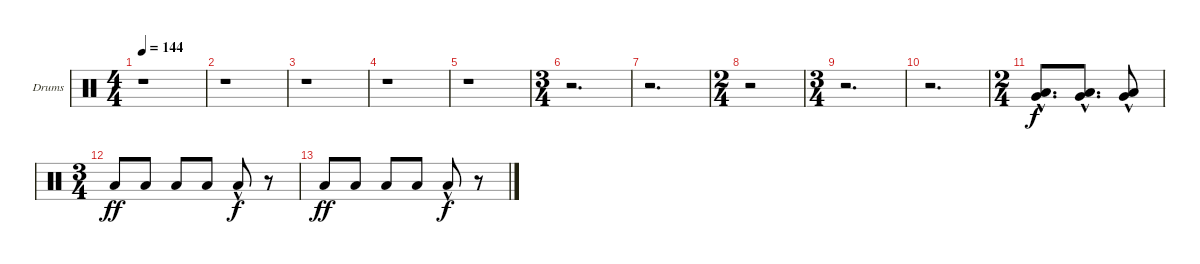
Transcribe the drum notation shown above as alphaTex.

\defaultSystemsLayout 4
\bracketExtendMode groupsimilarinstruments
\firstSystemTrackNameOrientation horizontal
\otherSystemsTrackNameOrientation horizontal
\track ("Tom" "Drums") {instrument percussion}
\staff {score}
\articulation defaults
\ts (4 4)
\tempo 144
\clef neutral
\ks c
r.1{dy f} |
r.1 |
r.1 |
r.1 |
r.1 |
\ts (3 4)
r.2{d} |
r.2{d} |
\ts (2 4)
r.2 |
\ts (3 4)
r.2{d} |
r.2{d} |
\ts (2 4)
("Very Low Tom (hit)"{hac} "Low Tom (hit)"{hac}).8{d} ("Very Low Tom (hit)"{hac} "Low Tom (hit)"{hac}).8{d} ("Very Low Tom (hit)"{hac} "Low Tom (hit)"{hac}).8 |
\ts (3 4)
"Low Tom (hit)".8{dy ff} "Low Tom (hit)".8 "Low Tom (hit)".8 "Low Tom (hit)".8 "Low Tom (hit)"{hac}.8{dy f} r.8 |
"Low Tom (hit)".8{dy ff} "Low Tom (hit)".8 "Low Tom (hit)".8 "Low Tom (hit)".8 "Low Tom (hit)"{hac}.8{dy f} r.8
